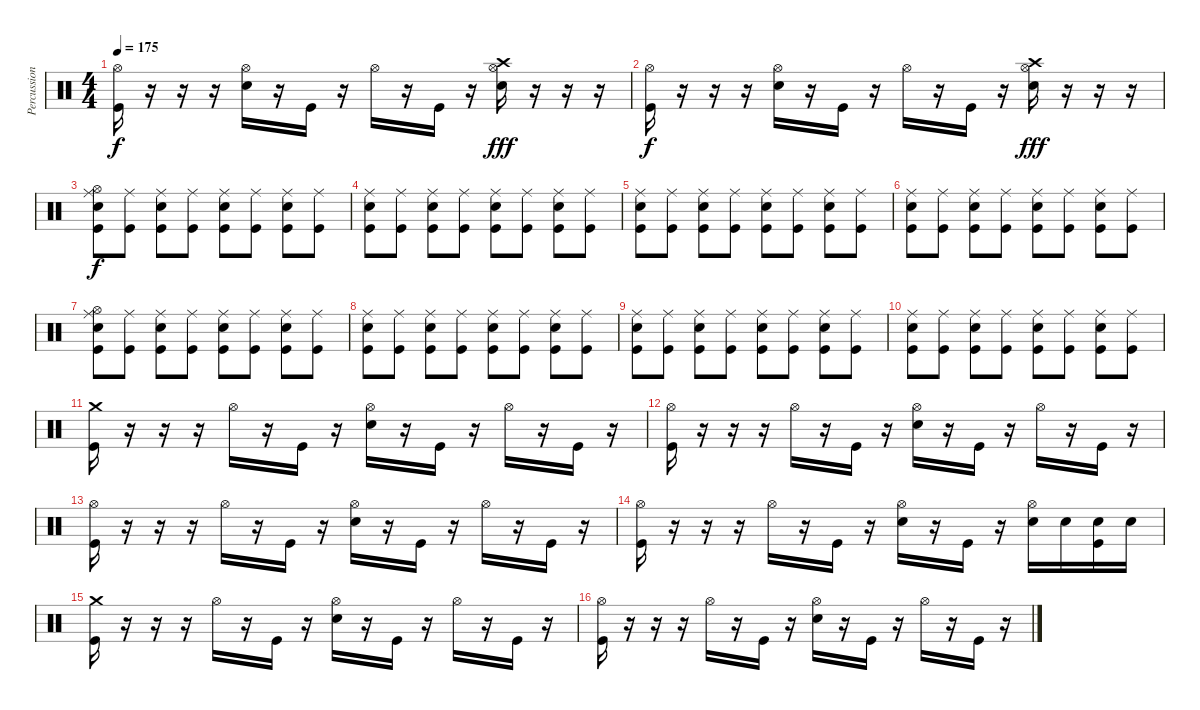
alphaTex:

\track ("Percussions" "Percussion") {instrument percussion}
\staff {score}
\articulation defaults
\ts (4 4)
\tempo 175
\clef neutral
\ks c
("Hi-Hat (open)" "Kick (hit)").16{dy f} r.16 r.16 r.16 ("Hi-Hat (open)" "Electric Snare (hit)").16 r.16 "Kick (hit)".16 r.16 "Hi-Hat (open)".16 r.16 "Kick (hit)".16 r.16 ("Hi-Hat (open)" "Crash high (hit)" "Electric Snare (hit)").16{dy fff} r.16 r.16 r.16 |
("Hi-Hat (open)" "Kick (hit)").16{dy f} r.16 r.16 r.16 ("Hi-Hat (open)" "Electric Snare (hit)").16 r.16 "Kick (hit)".16 r.16 "Hi-Hat (open)".16 r.16 "Kick (hit)".16 r.16 ("Hi-Hat (open)" "Crash high (hit)" "Electric Snare (hit)").16{dy fff} r.16 r.16 r.16 |
("Hi-Hat (open)" "Ride (middle)" "Electric Snare (hit)" "Kick (hit)").8{dy f} ("Ride (middle)" "Kick (hit)").8 ("Ride (middle)" "Electric Snare (hit)" "Kick (hit)").8 ("Ride (middle)" "Kick (hit)").8 ("Ride (middle)" "Electric Snare (hit)" "Kick (hit)").8 ("Ride (middle)" "Kick (hit)").8 ("Ride (middle)" "Electric Snare (hit)" "Kick (hit)").8 ("Ride (middle)" "Kick (hit)").8 |
("Ride (middle)" "Electric Snare (hit)" "Kick (hit)").8 ("Ride (middle)" "Kick (hit)").8 ("Ride (middle)" "Electric Snare (hit)" "Kick (hit)").8 ("Ride (middle)" "Kick (hit)").8 ("Ride (middle)" "Electric Snare (hit)" "Kick (hit)").8 ("Ride (middle)" "Kick (hit)").8 ("Ride (middle)" "Electric Snare (hit)" "Kick (hit)").8 ("Ride (middle)" "Kick (hit)").8 |
("Ride (middle)" "Electric Snare (hit)" "Kick (hit)").8 ("Ride (middle)" "Kick (hit)").8 ("Ride (middle)" "Electric Snare (hit)" "Kick (hit)").8 ("Ride (middle)" "Kick (hit)").8 ("Ride (middle)" "Electric Snare (hit)" "Kick (hit)").8 ("Ride (middle)" "Kick (hit)").8 ("Ride (middle)" "Electric Snare (hit)" "Kick (hit)").8 ("Ride (middle)" "Kick (hit)").8 |
("Ride (middle)" "Electric Snare (hit)" "Kick (hit)").8 ("Ride (middle)" "Kick (hit)").8 ("Ride (middle)" "Electric Snare (hit)" "Kick (hit)").8 ("Ride (middle)" "Kick (hit)").8 ("Ride (middle)" "Electric Snare (hit)" "Kick (hit)").8 ("Ride (middle)" "Kick (hit)").8 ("Ride (middle)" "Electric Snare (hit)" "Kick (hit)").8 ("Ride (middle)" "Kick (hit)").8 |
("Hi-Hat (open)" "Ride (middle)" "Electric Snare (hit)" "Kick (hit)").8 ("Ride (middle)" "Kick (hit)").8 ("Ride (middle)" "Electric Snare (hit)" "Kick (hit)").8 ("Ride (middle)" "Kick (hit)").8 ("Ride (middle)" "Electric Snare (hit)" "Kick (hit)").8 ("Ride (middle)" "Kick (hit)").8 ("Ride (middle)" "Electric Snare (hit)" "Kick (hit)").8 ("Ride (middle)" "Kick (hit)").8 |
("Ride (middle)" "Electric Snare (hit)" "Kick (hit)").8 ("Ride (middle)" "Kick (hit)").8 ("Ride (middle)" "Electric Snare (hit)" "Kick (hit)").8 ("Ride (middle)" "Kick (hit)").8 ("Ride (middle)" "Electric Snare (hit)" "Kick (hit)").8 ("Ride (middle)" "Kick (hit)").8 ("Ride (middle)" "Electric Snare (hit)" "Kick (hit)").8 ("Ride (middle)" "Kick (hit)").8 |
("Ride (middle)" "Electric Snare (hit)" "Kick (hit)").8 ("Ride (middle)" "Kick (hit)").8 ("Ride (middle)" "Electric Snare (hit)" "Kick (hit)").8 ("Ride (middle)" "Kick (hit)").8 ("Ride (middle)" "Electric Snare (hit)" "Kick (hit)").8 ("Ride (middle)" "Kick (hit)").8 ("Ride (middle)" "Electric Snare (hit)" "Kick (hit)").8 ("Ride (middle)" "Kick (hit)").8 |
("Ride (middle)" "Electric Snare (hit)" "Kick (hit)").8 ("Ride (middle)" "Kick (hit)").8 ("Ride (middle)" "Electric Snare (hit)" "Kick (hit)").8 ("Ride (middle)" "Kick (hit)").8 ("Ride (middle)" "Electric Snare (hit)" "Kick (hit)").8 ("Ride (middle)" "Kick (hit)").8 ("Ride (middle)" "Electric Snare (hit)" "Kick (hit)").8 ("Ride (middle)" "Kick (hit)").8 |
("Crash medium (hit)" "Kick (hit)").16 r.16 r.16 r.16 "Hi-Hat (open)".16 r.16 "Kick (hit)".16 r.16 ("Hi-Hat (open)" "Electric Snare (hit)").16 r.16 "Kick (hit)".16 r.16 "Hi-Hat (open)".16 r.16 "Kick (hit)".16 r.16 |
("Hi-Hat (open)" "Kick (hit)").16 r.16 r.16 r.16 "Hi-Hat (open)".16 r.16 "Kick (hit)".16 r.16 ("Hi-Hat (open)" "Electric Snare (hit)").16 r.16 "Kick (hit)".16 r.16 "Hi-Hat (open)".16 r.16 "Kick (hit)".16 r.16 |
("Hi-Hat (open)" "Kick (hit)").16 r.16 r.16 r.16 "Hi-Hat (open)".16 r.16 "Kick (hit)".16 r.16 ("Hi-Hat (open)" "Electric Snare (hit)").16 r.16 "Kick (hit)".16 r.16 "Hi-Hat (open)".16 r.16 "Kick (hit)".16 r.16 |
("Hi-Hat (open)" "Kick (hit)").16 r.16 r.16 r.16 "Hi-Hat (open)".16 r.16 "Kick (hit)".16 r.16 ("Hi-Hat (open)" "Electric Snare (hit)").16 r.16 "Kick (hit)".16 r.16 ("Hi-Hat (open)" "Electric Snare (hit)").16 "Electric Snare (hit)".16 ("Electric Snare (hit)" "Kick (hit)").16 "Electric Snare (hit)".16 |
("Crash medium (hit)" "Kick (hit)").16 r.16 r.16 r.16 "Hi-Hat (open)".16 r.16 "Kick (hit)".16 r.16 ("Hi-Hat (open)" "Electric Snare (hit)").16 r.16 "Kick (hit)".16 r.16 "Hi-Hat (open)".16 r.16 "Kick (hit)".16 r.16 |
("Hi-Hat (open)" "Kick (hit)").16 r.16 r.16 r.16 "Hi-Hat (open)".16 r.16 "Kick (hit)".16 r.16 ("Hi-Hat (open)" "Electric Snare (hit)").16 r.16 "Kick (hit)".16 r.16 "Hi-Hat (open)".16 r.16 "Kick (hit)".16 r.16
